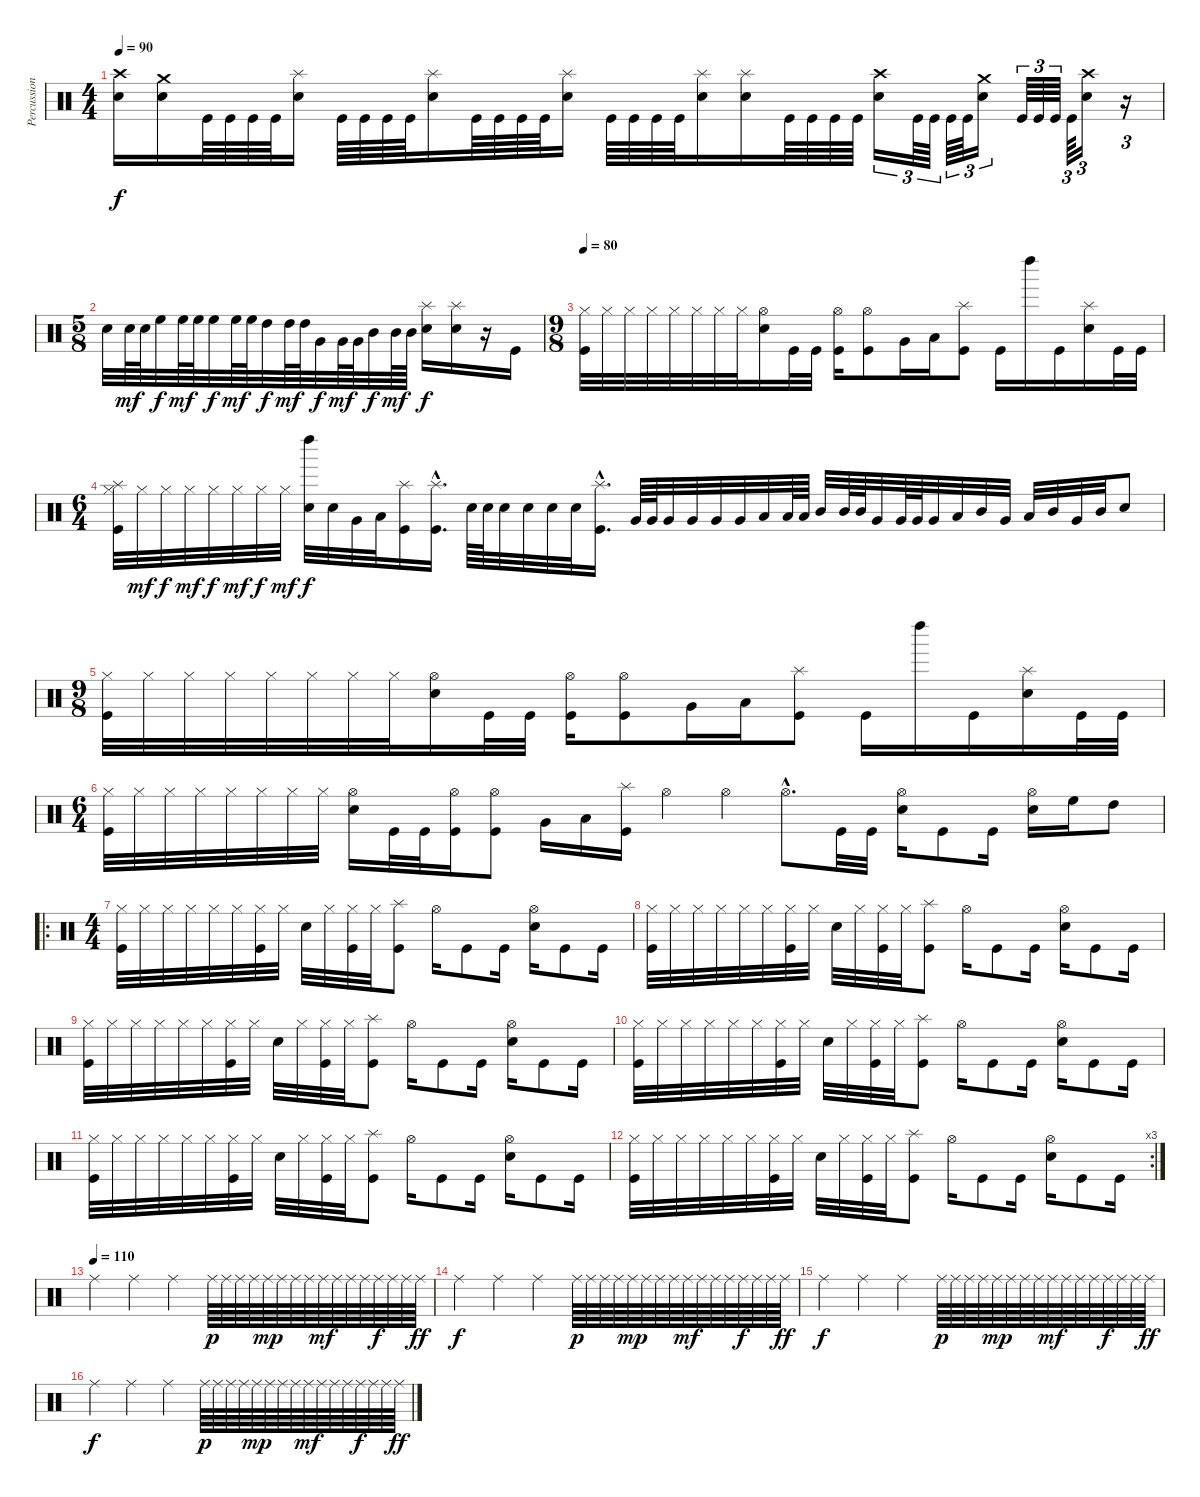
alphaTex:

\track ("Percussions" "Percussion") {instrument percussion}
\staff {score}
\articulation defaults
\ts (4 4)
\tempo 90
\clef neutral
\ks c
("Crash high (hit)" "Electric Snare (hit)").16{dy f} ("Crash medium (hit)" "Electric Snare (hit)").16 "Kick (hit)".64 "Kick (hit)".64 "Kick (hit)".64 "Kick (hit)".64 ("Splash (hit)" "Electric Snare (hit)").16 "Kick (hit)".64 "Kick (hit)".64 "Kick (hit)".64 "Kick (hit)".64 ("Splash (hit)" "Electric Snare (hit)").16 "Kick (hit)".64 "Kick (hit)".64 "Kick (hit)".64 "Kick (hit)".64 ("Splash (hit)" "Electric Snare (hit)").16 "Kick (hit)".64 "Kick (hit)".64 "Kick (hit)".64 "Kick (hit)".64 ("Splash (hit)" "Electric Snare (hit)").16 ("Splash (hit)" "Electric Snare (hit)").16 "Kick (hit)".64 "Kick (hit)".64 "Kick (hit)".64 "Kick (hit)".64 ("Crash high (hit)" "Electric Snare (hit)").16{tu (3 2)} "Kick (hit)".64{tu (3 2)} "Kick (hit)".64{tu (3 2)} "Kick (hit)".64{tu (3 2)} "Kick (hit)".64{tu (3 2)} ("Crash medium (hit)" "Electric Snare (hit)").16{tu (3 2)} "Kick (hit)".64{tu (3 2)} "Kick (hit)".64{tu (3 2)} "Kick (hit)".64{tu (3 2)} "Kick (hit)".64{tu (3 2)} ("Crash high (hit)" "Electric Snare (hit)").16{tu (3 2)} r.16{tu (3 2)} |
\ts (5 8)
"Electric Snare (hit)".32 "Electric Snare (hit)".64{dy mf} "Electric Snare (hit)".64 "High Floor Tom (hit)".32{dy f} "High Floor Tom (hit)".64{dy mf} "High Floor Tom (hit)".64 "High Floor Tom (hit)".32{dy f} "High Floor Tom (hit)".64{dy mf} "High Floor Tom (hit)".64 "High Tom (hit)".32{dy f} "High Tom (hit)".64{dy mf} "High Tom (hit)".64 "Very Low Tom (hit)".32{dy f} "Very Low Tom (hit)".64{dy mf} "Very Low Tom (hit)".64 "Mid Tom (hit)".32{dy f} "Mid Tom (hit)".64{dy mf} "Mid Tom (hit)".64 ("Splash (hit)" "Electric Snare (hit)").16{dy f} ("Splash (hit)" "Electric Snare (hit)").16 r.16 "Kick (hit)".16 |
\ts (9 8)
\tempo 80
("Kick (hit)" "Hi-Hat (closed)").32 "Hi-Hat (closed)".32 "Hi-Hat (closed)".32 "Hi-Hat (closed)".32 "Hi-Hat (closed)".32 "Hi-Hat (closed)".32 "Hi-Hat (closed)".32 "Hi-Hat (closed)".32 ("Electric Snare (hit)" "Hi-Hat (open)").16 "Kick (hit)".32 "Kick (hit)".32 ("Kick (hit)" "Hi-Hat (open)").16 ("Kick (hit)" "Hi-Hat (open)").8 "Very Low Tom (hit)".16 "Low Tom (hit)".16 ("Splash (hit)" "Kick (hit)").8 "Kick (hit)".16 "Left Maraca (hit)".16 "Kick (hit)".16 ("Splash (hit)" "Electric Snare (hit)").16 "Kick (hit)".32 "Kick (hit)".32 |
\ts (6 4)
("Splash (hit)" "Kick (hit)" "Hi-Hat (closed)").32 "Hi-Hat (closed)".32{dy mf} "Hi-Hat (closed)".32{dy f} "Hi-Hat (closed)".32{dy mf} "Hi-Hat (closed)".32{dy f} "Hi-Hat (closed)".32{dy mf} "Hi-Hat (closed)".32{dy f} "Hi-Hat (closed)".32{dy mf} ("Electric Snare (hit)" "Left Maraca (hit)").32{dy f} "Electric Snare (hit)".32 "Very Low Tom (hit)".32 "Low Tom (hit)".32 ("Splash (hit)" "Kick (hit)").16 ("Splash (hit)"{hac} "Kick (hit)"{hac}).16{d} "Electric Snare (hit)".64 "Electric Snare (hit)".64 "Electric Snare (hit)".32 "Electric Snare (hit)".32 "Electric Snare (hit)".32 "Electric Snare (hit)".32 ("Splash (hit)"{hac} "Kick (hit)"{hac}).16{d} "Very Low Tom (hit)".64 "Very Low Tom (hit)".64 "Very Low Tom (hit)".32 "Very Low Tom (hit)".32 "Very Low Tom (hit)".32 "Very Low Tom (hit)".32 "Low Tom (hit)".32 "Low Tom (hit)".64 "Low Tom (hit)".64 "Mid Tom (hit)".32 "Mid Tom (hit)".64 "Mid Tom (hit)".64 "Very Low Tom (hit)".32 "Very Low Tom (hit)".64 "Very Low Tom (hit)".64 "Very Low Tom (hit)".32 "Low Tom (hit)".32 "Mid Tom (hit)".32 "Very Low Tom (hit)".32 "Low Tom (hit)".32 "Mid Tom (hit)".32 "Very Low Tom (hit)".32 "Mid Tom (hit)".32 "Electric Snare (hit)".8 |
\ts (9 8)
("Kick (hit)" "Hi-Hat (closed)").32 "Hi-Hat (closed)".32 "Hi-Hat (closed)".32 "Hi-Hat (closed)".32 "Hi-Hat (closed)".32 "Hi-Hat (closed)".32 "Hi-Hat (closed)".32 "Hi-Hat (closed)".32 ("Electric Snare (hit)" "Hi-Hat (open)").16 "Kick (hit)".32 "Kick (hit)".32 ("Kick (hit)" "Hi-Hat (open)").16 ("Kick (hit)" "Hi-Hat (open)").8 "Very Low Tom (hit)".16 "Low Tom (hit)".16 ("Splash (hit)" "Kick (hit)").8 "Kick (hit)".16 "Left Maraca (hit)".16 "Kick (hit)".16 ("Splash (hit)" "Electric Snare (hit)").16 "Kick (hit)".32 "Kick (hit)".32 |
\ts (6 4)
("Kick (hit)" "Hi-Hat (closed)").32 "Hi-Hat (closed)".32 "Hi-Hat (closed)".32 "Hi-Hat (closed)".32 "Hi-Hat (closed)".32 "Hi-Hat (closed)".32 "Hi-Hat (closed)".32 "Hi-Hat (closed)".32 ("Electric Snare (hit)" "Hi-Hat (open)").16 "Kick (hit)".32 "Kick (hit)".32 ("Kick (hit)" "Hi-Hat (open)").16 ("Kick (hit)" "Hi-Hat (open)").8 "Very Low Tom (hit)".16 "Low Tom (hit)".16 ("Splash (hit)" "Kick (hit)").16 "Hi-Hat (open)".4 "Hi-Hat (open)".4 "Hi-Hat (open)"{hac}.8{d} "Kick (hit)".32 "Kick (hit)".32 ("Hi-Hat (open)" "Electric Snare (hit)").16 "Kick (hit)".8 "Kick (hit)".16 ("Hi-Hat (open)" "Electric Snare (hit)").16 "High Floor Tom (hit)".16 "High Tom (hit)".8 |
\ro
\ts (4 4)
("Hi-Hat (closed)" "Kick (hit)").32 "Hi-Hat (closed)".32 "Hi-Hat (closed)".32 "Hi-Hat (closed)".32 "Hi-Hat (closed)".32 "Hi-Hat (closed)".32 ("Hi-Hat (closed)" "Kick (hit)").32 "Hi-Hat (closed)".32 "Electric Snare (hit)".32 "Hi-Hat (closed)".32 ("Hi-Hat (closed)" "Kick (hit)").32 "Hi-Hat (closed)".32 ("Splash (hit)" "Kick (hit)").8 "Hi-Hat (open)".16 "Kick (hit)".8 "Kick (hit)".16 ("Hi-Hat (open)" "Electric Snare (hit)").16 "Kick (hit)".8 "Kick (hit)".16 |
("Hi-Hat (closed)" "Kick (hit)").32 "Hi-Hat (closed)".32 "Hi-Hat (closed)".32 "Hi-Hat (closed)".32 "Hi-Hat (closed)".32 "Hi-Hat (closed)".32 ("Hi-Hat (closed)" "Kick (hit)").32 "Hi-Hat (closed)".32 "Electric Snare (hit)".32 "Hi-Hat (closed)".32 ("Hi-Hat (closed)" "Kick (hit)").32 "Hi-Hat (closed)".32 ("Splash (hit)" "Kick (hit)").8 "Hi-Hat (open)".16 "Kick (hit)".8 "Kick (hit)".16 ("Hi-Hat (open)" "Electric Snare (hit)").16 "Kick (hit)".8 "Kick (hit)".16 |
("Hi-Hat (closed)" "Kick (hit)").32 "Hi-Hat (closed)".32 "Hi-Hat (closed)".32 "Hi-Hat (closed)".32 "Hi-Hat (closed)".32 "Hi-Hat (closed)".32 ("Hi-Hat (closed)" "Kick (hit)").32 "Hi-Hat (closed)".32 "Electric Snare (hit)".32 "Hi-Hat (closed)".32 ("Hi-Hat (closed)" "Kick (hit)").32 "Hi-Hat (closed)".32 ("Splash (hit)" "Kick (hit)").8 "Hi-Hat (open)".16 "Kick (hit)".8 "Kick (hit)".16 ("Hi-Hat (open)" "Electric Snare (hit)").16 "Kick (hit)".8 "Kick (hit)".16 |
("Hi-Hat (closed)" "Kick (hit)").32 "Hi-Hat (closed)".32 "Hi-Hat (closed)".32 "Hi-Hat (closed)".32 "Hi-Hat (closed)".32 "Hi-Hat (closed)".32 ("Hi-Hat (closed)" "Kick (hit)").32 "Hi-Hat (closed)".32 "Electric Snare (hit)".32 "Hi-Hat (closed)".32 ("Hi-Hat (closed)" "Kick (hit)").32 "Hi-Hat (closed)".32 ("Splash (hit)" "Kick (hit)").8 "Hi-Hat (open)".16 "Kick (hit)".8 "Kick (hit)".16 ("Hi-Hat (open)" "Electric Snare (hit)").16 "Kick (hit)".8 "Kick (hit)".16 |
("Hi-Hat (closed)" "Kick (hit)").32 "Hi-Hat (closed)".32 "Hi-Hat (closed)".32 "Hi-Hat (closed)".32 "Hi-Hat (closed)".32 "Hi-Hat (closed)".32 ("Hi-Hat (closed)" "Kick (hit)").32 "Hi-Hat (closed)".32 "Electric Snare (hit)".32 "Hi-Hat (closed)".32 ("Hi-Hat (closed)" "Kick (hit)").32 "Hi-Hat (closed)".32 ("Splash (hit)" "Kick (hit)").8 "Hi-Hat (open)".16 "Kick (hit)".8 "Kick (hit)".16 ("Hi-Hat (open)" "Electric Snare (hit)").16 "Kick (hit)".8 "Kick (hit)".16 |
\rc 3
("Hi-Hat (closed)" "Kick (hit)").32 "Hi-Hat (closed)".32 "Hi-Hat (closed)".32 "Hi-Hat (closed)".32 "Hi-Hat (closed)".32 "Hi-Hat (closed)".32 ("Hi-Hat (closed)" "Kick (hit)").32 "Hi-Hat (closed)".32 "Electric Snare (hit)".32 "Hi-Hat (closed)".32 ("Hi-Hat (closed)" "Kick (hit)").32 "Hi-Hat (closed)".32 ("Splash (hit)" "Kick (hit)").8 "Hi-Hat (open)".16 "Kick (hit)".8 "Kick (hit)".16 ("Hi-Hat (open)" "Electric Snare (hit)").16 "Kick (hit)".8 "Kick (hit)".16 |
\tempo (110)
"Ride (middle)".4 "Ride (middle)".4 "Ride (middle)".4 "Ride (middle)".64{dy p} "Ride (middle)".64 "Ride (middle)".64 "Ride (middle)".64 "Ride (middle)".64{dy mp} "Ride (middle)".64 "Ride (middle)".64 "Ride (middle)".64 "Ride (middle)".64{dy mf} "Ride (middle)".64 "Ride (middle)".64 "Ride (middle)".64 "Ride (middle)".64{dy f} "Ride (middle)".64 "Ride (middle)".64 "Ride (middle)".64{dy ff} |
"Ride (middle)".4{dy f} "Ride (middle)".4 "Ride (middle)".4 "Ride (middle)".64{dy p} "Ride (middle)".64 "Ride (middle)".64 "Ride (middle)".64 "Ride (middle)".64{dy mp} "Ride (middle)".64 "Ride (middle)".64 "Ride (middle)".64 "Ride (middle)".64{dy mf} "Ride (middle)".64 "Ride (middle)".64 "Ride (middle)".64 "Ride (middle)".64{dy f} "Ride (middle)".64 "Ride (middle)".64 "Ride (middle)".64{dy ff} |
"Ride (middle)".4{dy f} "Ride (middle)".4 "Ride (middle)".4 "Ride (middle)".64{dy p} "Ride (middle)".64 "Ride (middle)".64 "Ride (middle)".64 "Ride (middle)".64{dy mp} "Ride (middle)".64 "Ride (middle)".64 "Ride (middle)".64 "Ride (middle)".64{dy mf} "Ride (middle)".64 "Ride (middle)".64 "Ride (middle)".64 "Ride (middle)".64{dy f} "Ride (middle)".64 "Ride (middle)".64 "Ride (middle)".64{dy ff} |
"Ride (middle)".4{dy f} "Ride (middle)".4 "Ride (middle)".4 "Ride (middle)".64{dy p} "Ride (middle)".64 "Ride (middle)".64 "Ride (middle)".64 "Ride (middle)".64{dy mp} "Ride (middle)".64 "Ride (middle)".64 "Ride (middle)".64 "Ride (middle)".64{dy mf} "Ride (middle)".64 "Ride (middle)".64 "Ride (middle)".64 "Ride (middle)".64{dy f} "Ride (middle)".64 "Ride (middle)".64 "Ride (middle)".64{dy ff}
